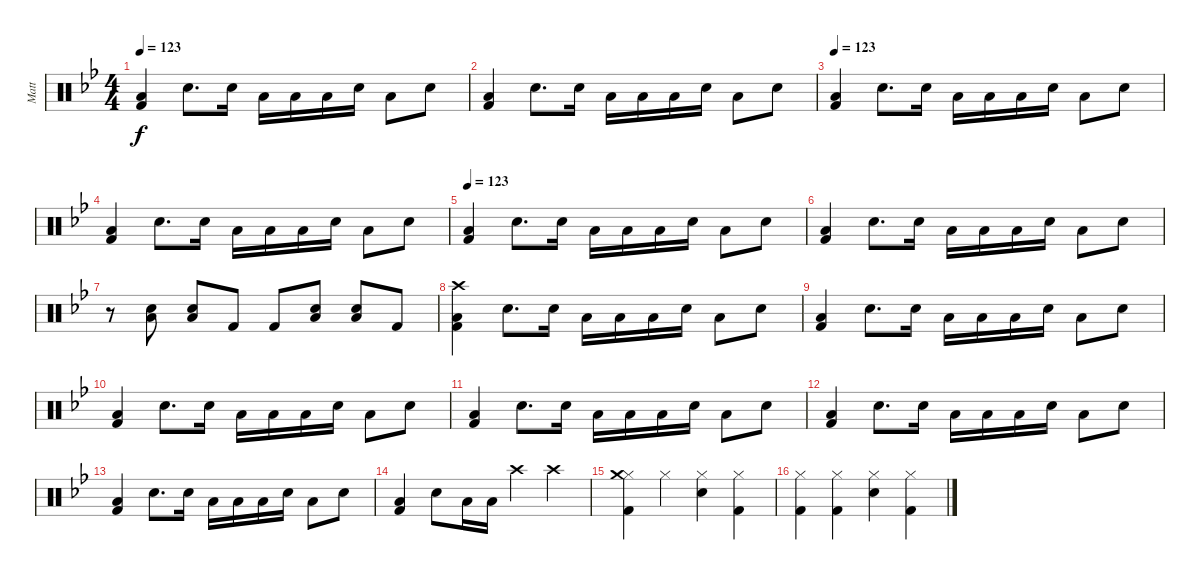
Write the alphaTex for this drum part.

\track ("Matt" "Matt") {instrument percussion}
\staff {score}
\articulation defaults
\ts (4 4)
\tempo 123
\clef neutral
\ks bb
("Low Floor Tom (hit)" "Kick (hit) 2").4{dy f} "Snare (hit) 2".8{d} "Snare (hit) 2".16 "Low Floor Tom (hit)".16 "Low Floor Tom (hit)".16 "Low Floor Tom (hit)".16 "Snare (hit) 2".16 "Low Floor Tom (hit)".8 "Snare (hit) 2".8 |
("Low Floor Tom (hit)" "Kick (hit) 2").4 "Snare (hit) 2".8{d} "Snare (hit) 2".16 "Low Floor Tom (hit)".16 "Low Floor Tom (hit)".16 "Low Floor Tom (hit)".16 "Snare (hit) 2".16 "Low Floor Tom (hit)".8 "Snare (hit) 2".8 |
\tempo 123
("Low Floor Tom (hit)" "Kick (hit) 2").4 "Snare (hit) 2".8{d} "Snare (hit) 2".16 "Low Floor Tom (hit)".16 "Low Floor Tom (hit)".16 "Low Floor Tom (hit)".16 "Snare (hit) 2".16 "Low Floor Tom (hit)".8 "Snare (hit) 2".8 |
("Low Floor Tom (hit)" "Kick (hit) 2").4 "Snare (hit) 2".8{d} "Snare (hit) 2".16 "Low Floor Tom (hit)".16 "Low Floor Tom (hit)".16 "Low Floor Tom (hit)".16 "Snare (hit) 2".16 "Low Floor Tom (hit)".8 "Snare (hit) 2".8 |
\tempo 123
("Low Floor Tom (hit)" "Kick (hit) 2").4 "Snare (hit) 2".8{d} "Snare (hit) 2".16 "Low Floor Tom (hit)".16 "Low Floor Tom (hit)".16 "Low Floor Tom (hit)".16 "Snare (hit) 2".16 "Low Floor Tom (hit)".8 "Snare (hit) 2".8 |
("Low Floor Tom (hit)" "Kick (hit) 2").4 "Snare (hit) 2".8{d} "Snare (hit) 2".16 "Low Floor Tom (hit)".16 "Low Floor Tom (hit)".16 "Low Floor Tom (hit)".16 "Snare (hit) 2".16 "Low Floor Tom (hit)".8 "Snare (hit) 2".8 |
r.8 ("Snare (hit) 2" "Low Floor Tom (hit)").8 ("Snare (hit) 2" "Low Floor Tom (hit)").8 "Kick (hit) 2".8 "Kick (hit) 2".8 ("Snare (hit) 2" "Low Floor Tom (hit)").8 ("Snare (hit) 2" "Low Floor Tom (hit)").8 "Kick (hit) 2".8 |
("Low Floor Tom (hit)" "Kick (hit) 2" "Crash high (hit)").4 "Snare (hit) 2".8{d} "Snare (hit) 2".16 "Low Floor Tom (hit)".16 "Low Floor Tom (hit)".16 "Low Floor Tom (hit)".16 "Snare (hit) 2".16 "Low Floor Tom (hit)".8 "Snare (hit) 2".8 |
("Low Floor Tom (hit)" "Kick (hit) 2").4 "Snare (hit) 2".8{d} "Snare (hit) 2".16 "Low Floor Tom (hit)".16 "Low Floor Tom (hit)".16 "Low Floor Tom (hit)".16 "Snare (hit) 2".16 "Low Floor Tom (hit)".8 "Snare (hit) 2".8 |
("Low Floor Tom (hit)" "Kick (hit) 2").4 "Snare (hit) 2".8{d} "Snare (hit) 2".16 "Low Floor Tom (hit)".16 "Low Floor Tom (hit)".16 "Low Floor Tom (hit)".16 "Snare (hit) 2".16 "Low Floor Tom (hit)".8 "Snare (hit) 2".8 |
("Low Floor Tom (hit)" "Kick (hit) 2").4 "Snare (hit) 2".8{d} "Snare (hit) 2".16 "Low Floor Tom (hit)".16 "Low Floor Tom (hit)".16 "Low Floor Tom (hit)".16 "Snare (hit) 2".16 "Low Floor Tom (hit)".8 "Snare (hit) 2".8 |
("Low Floor Tom (hit)" "Kick (hit) 2").4 "Snare (hit) 2".8{d} "Snare (hit) 2".16 "Low Floor Tom (hit)".16 "Low Floor Tom (hit)".16 "Low Floor Tom (hit)".16 "Snare (hit) 2".16 "Low Floor Tom (hit)".8 "Snare (hit) 2".8 |
("Low Floor Tom (hit)" "Kick (hit) 2").4 "Snare (hit) 2".8{d} "Snare (hit) 2".16 "Low Floor Tom (hit)".16 "Low Floor Tom (hit)".16 "Low Floor Tom (hit)".16 "Snare (hit) 2".16 "Low Floor Tom (hit)".8 "Snare (hit) 2".8 |
("Low Floor Tom (hit)" "Kick (hit) 2").4 "Snare (hit) 2".8 "Low Floor Tom (hit)".16 "Low Floor Tom (hit)".16 "Crash high (hit)".4 "Crash high (hit)".4 |
("Hi-Hat (closed)" "Crash medium (hit)" "Kick (hit) 2").4 "Hi-Hat (closed)".4 ("Hi-Hat (closed)" "Snare (hit) 2").4 ("Hi-Hat (closed)" "Kick (hit) 2").4 |
("Hi-Hat (closed)" "Kick (hit) 2").4 ("Hi-Hat (closed)" "Kick (hit) 2").4 ("Hi-Hat (closed)" "Snare (hit) 2").4 ("Hi-Hat (closed)" "Kick (hit) 2").4
